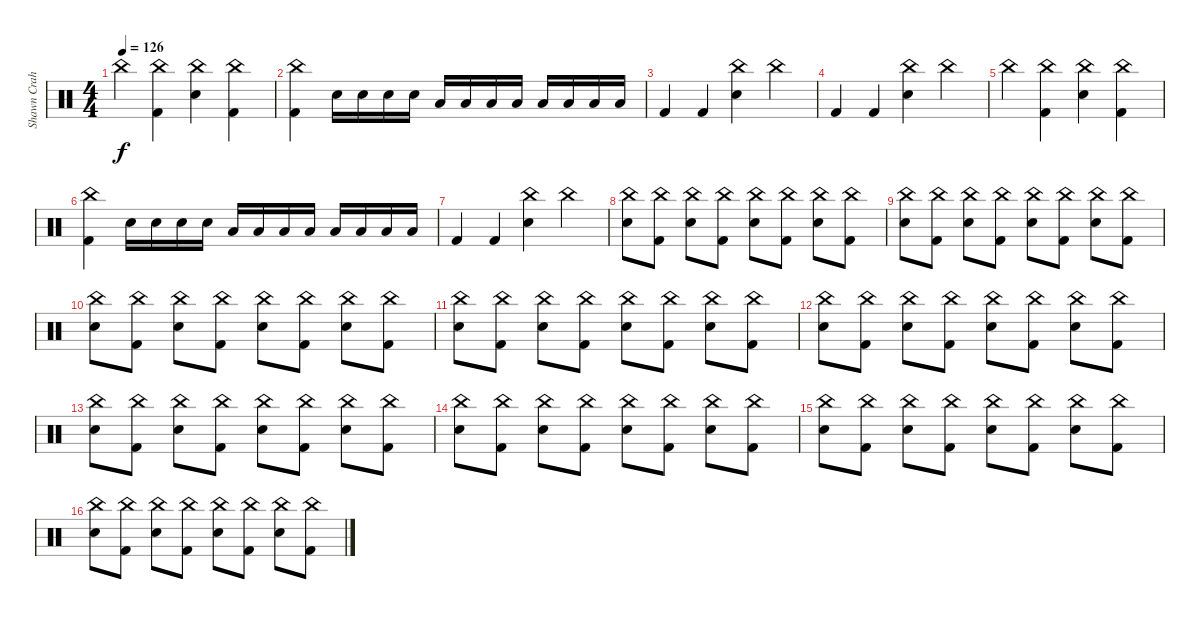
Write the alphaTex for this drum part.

\track ("Shawn Crahan" "Shawn Crah") {instrument percussion}
\staff {score}
\articulation defaults
\ts (4 4)
\tempo 126
\clef neutral
\ks c "China (hit)".4{dy f}
("China (hit)" "Kick (hit) 2").4 ("China (hit)" "Snare (hit) 2").4 ("China (hit)" "Kick (hit) 2").4 |
("China (hit)" "Kick (hit) 2").4 "Snare (hit) 2".16 "Snare (hit) 2".16 "Snare (hit) 2".16 "Snare (hit) 2".16 "Low Tom (hit)".16 "Low Tom (hit)".16 "Low Tom (hit)".16 "Low Tom (hit)".16 "Low Tom (hit)".16 "Low Tom (hit)".16 "Low Tom (hit)".16 "Low Tom (hit)".16 |
"Kick (hit) 2".4 "Kick (hit) 2".4 ("China (hit)" "Snare (hit) 2").4 "China (hit)".4 |
"Kick (hit) 2".4 "Kick (hit) 2".4 ("China (hit)" "Snare (hit) 2").4 "China (hit)".4 |
"China (hit)".4 ("China (hit)" "Kick (hit) 2").4 ("China (hit)" "Snare (hit) 2").4 ("China (hit)" "Kick (hit) 2").4 |
("China (hit)" "Kick (hit) 2").4 "Snare (hit) 2".16 "Snare (hit) 2".16 "Snare (hit) 2".16 "Snare (hit) 2".16 "Low Tom (hit)".16 "Low Tom (hit)".16 "Low Tom (hit)".16 "Low Tom (hit)".16 "Low Tom (hit)".16 "Low Tom (hit)".16 "Low Tom (hit)".16 "Low Tom (hit)".16 |
"Kick (hit) 2".4 "Kick (hit) 2".4 ("China (hit)" "Snare (hit) 2").4 "China (hit)".4 |
("China (hit)" "Snare (hit) 2").8 ("China (hit)" "Kick (hit) 2").8 ("China (hit)" "Snare (hit) 2").8 ("China (hit)" "Kick (hit) 2").8 ("China (hit)" "Snare (hit) 2").8 ("China (hit)" "Kick (hit) 2").8 ("China (hit)" "Snare (hit) 2").8 ("China (hit)" "Kick (hit) 2").8 |
("China (hit)" "Snare (hit) 2").8 ("China (hit)" "Kick (hit) 2").8 ("China (hit)" "Snare (hit) 2").8 ("China (hit)" "Kick (hit) 2").8 ("China (hit)" "Snare (hit) 2").8 ("China (hit)" "Kick (hit) 2").8 ("China (hit)" "Snare (hit) 2").8 ("China (hit)" "Kick (hit) 2").8 |
("China (hit)" "Snare (hit) 2").8 ("China (hit)" "Kick (hit) 2").8 ("China (hit)" "Snare (hit) 2").8 ("China (hit)" "Kick (hit) 2").8 ("China (hit)" "Snare (hit) 2").8 ("China (hit)" "Kick (hit) 2").8 ("China (hit)" "Snare (hit) 2").8 ("China (hit)" "Kick (hit) 2").8 |
("China (hit)" "Snare (hit) 2").8 ("China (hit)" "Kick (hit) 2").8 ("China (hit)" "Snare (hit) 2").8 ("China (hit)" "Kick (hit) 2").8 ("China (hit)" "Snare (hit) 2").8 ("China (hit)" "Kick (hit) 2").8 ("China (hit)" "Snare (hit) 2").8 ("China (hit)" "Kick (hit) 2").8 |
("China (hit)" "Snare (hit) 2").8 ("China (hit)" "Kick (hit) 2").8 ("China (hit)" "Snare (hit) 2").8 ("China (hit)" "Kick (hit) 2").8 ("China (hit)" "Snare (hit) 2").8 ("China (hit)" "Kick (hit) 2").8 ("China (hit)" "Snare (hit) 2").8 ("China (hit)" "Kick (hit) 2").8 |
("China (hit)" "Snare (hit) 2").8 ("China (hit)" "Kick (hit) 2").8 ("China (hit)" "Snare (hit) 2").8 ("China (hit)" "Kick (hit) 2").8 ("China (hit)" "Snare (hit) 2").8 ("China (hit)" "Kick (hit) 2").8 ("China (hit)" "Snare (hit) 2").8 ("China (hit)" "Kick (hit) 2").8 |
("China (hit)" "Snare (hit) 2").8 ("China (hit)" "Kick (hit) 2").8 ("China (hit)" "Snare (hit) 2").8 ("China (hit)" "Kick (hit) 2").8 ("China (hit)" "Snare (hit) 2").8 ("China (hit)" "Kick (hit) 2").8 ("China (hit)" "Snare (hit) 2").8 ("China (hit)" "Kick (hit) 2").8 |
("China (hit)" "Snare (hit) 2").8 ("China (hit)" "Kick (hit) 2").8 ("China (hit)" "Snare (hit) 2").8 ("China (hit)" "Kick (hit) 2").8 ("China (hit)" "Snare (hit) 2").8 ("China (hit)" "Kick (hit) 2").8 ("China (hit)" "Snare (hit) 2").8 ("China (hit)" "Kick (hit) 2").8 |
("China (hit)" "Snare (hit) 2").8 ("China (hit)" "Kick (hit) 2").8 ("China (hit)" "Snare (hit) 2").8 ("China (hit)" "Kick (hit) 2").8 ("China (hit)" "Snare (hit) 2").8 ("China (hit)" "Kick (hit) 2").8 ("China (hit)" "Snare (hit) 2").8 ("China (hit)" "Kick (hit) 2").8
